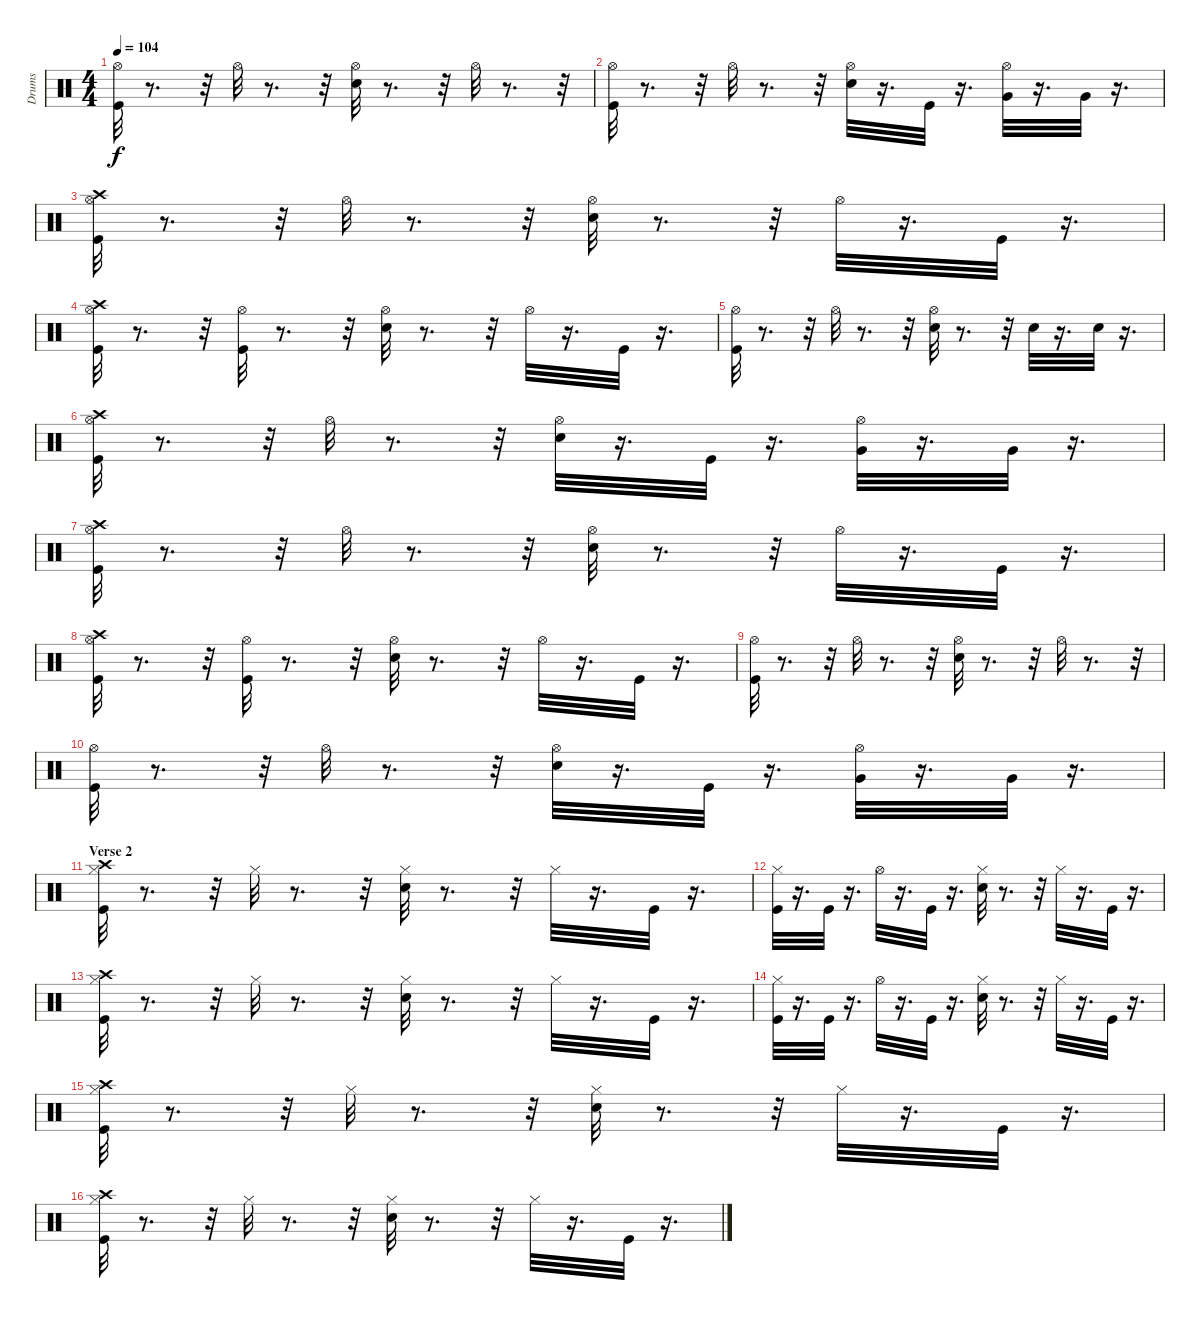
\track ("Drums" "Drums") {instrument percussion}
\staff {score}
\articulation defaults
\ts (4 4)
\tempo 104
\clef neutral
\ks c
("Hi-Hat (open)" "Kick (hit)").32{dy f} r.8{d} r.32 "Hi-Hat (open)".32 r.8{d} r.32 ("Electric Snare (hit)" "Hi-Hat (open)").32 r.8{d} r.32 "Hi-Hat (open)".32 r.8{d} r.32 |
("Hi-Hat (open)" "Kick (hit)").32 r.8{d} r.32 "Hi-Hat (open)".32 r.8{d} r.32 ("Hi-Hat (open)" "Electric Snare (hit)").32 r.16{d} "Kick (hit)".32 r.16{d} ("Very Low Tom (hit)" "Hi-Hat (open)").32 r.16{d} "Very Low Tom (hit)".32 r.16{d} |
("Crash high (hit)" "Hi-Hat (open)" "Kick (hit)").32 r.8{d} r.32 "Hi-Hat (open)".32 r.8{d} r.32 ("Hi-Hat (open)" "Electric Snare (hit)").32 r.8{d} r.32 "Hi-Hat (open)".32 r.16{d} "Kick (hit)".32 r.16{d} |
("Crash high (hit)" "Hi-Hat (open)" "Kick (hit)").32 r.8{d} r.32 ("Kick (hit)" "Hi-Hat (open)").32 r.8{d} r.32 ("Hi-Hat (open)" "Electric Snare (hit)").32 r.8{d} r.32 "Hi-Hat (open)".32 r.16{d} "Kick (hit)".32 r.16{d} |
("Hi-Hat (open)" "Kick (hit)").32 r.8{d} r.32 "Hi-Hat (open)".32 r.8{d} r.32 ("Electric Snare (hit)" "Hi-Hat (open)").32 r.8{d} r.32 "Electric Snare (hit)".32 r.16{d} "Electric Snare (hit)".32 r.16{d} |
("Crash high (hit)" "Hi-Hat (open)" "Kick (hit)").32 r.8{d} r.32 "Hi-Hat (open)".32 r.8{d} r.32 ("Hi-Hat (open)" "Electric Snare (hit)").32 r.16{d} "Kick (hit)".32 r.16{d} ("Very Low Tom (hit)" "Hi-Hat (open)").32 r.16{d} "Very Low Tom (hit)".32 r.16{d} |
("Crash high (hit)" "Hi-Hat (open)" "Kick (hit)").32 r.8{d} r.32 "Hi-Hat (open)".32 r.8{d} r.32 ("Hi-Hat (open)" "Electric Snare (hit)").32 r.8{d} r.32 "Hi-Hat (open)".32 r.16{d} "Kick (hit)".32 r.16{d} |
("Crash high (hit)" "Hi-Hat (open)" "Kick (hit)").32 r.8{d} r.32 ("Kick (hit)" "Hi-Hat (open)").32 r.8{d} r.32 ("Hi-Hat (open)" "Electric Snare (hit)").32 r.8{d} r.32 "Hi-Hat (open)".32 r.16{d} "Kick (hit)".32 r.16{d} |
("Hi-Hat (open)" "Kick (hit)").32 r.8{d} r.32 "Hi-Hat (open)".32 r.8{d} r.32 ("Electric Snare (hit)" "Hi-Hat (open)").32 r.8{d} r.32 "Hi-Hat (open)".32 r.8{d} r.32 |
("Hi-Hat (open)" "Kick (hit)").32 r.8{d} r.32 "Hi-Hat (open)".32 r.8{d} r.32 ("Hi-Hat (open)" "Electric Snare (hit)").32 r.16{d} "Kick (hit)".32 r.16{d} ("Very Low Tom (hit)" "Hi-Hat (open)").32 r.16{d} "Very Low Tom (hit)".32 r.16{d} |
\section ("" "Verse 2")
("Hi-Hat (closed)" "Crash high (hit)" "Kick (hit)").32 r.8{d} r.32 "Hi-Hat (closed)".32 r.8{d} r.32 ("Electric Snare (hit)" "Hi-Hat (closed)").32 r.8{d} r.32 "Hi-Hat (closed)".32 r.16{d} "Kick (hit)".32 r.16{d} |
("Hi-Hat (closed)" "Kick (hit)").32 r.16{d} "Kick (hit)".32 r.16{d} "Hi-Hat (open)".32 r.16{d} "Kick (hit)".32 r.16{d} ("Hi-Hat (closed)" "Electric Snare (hit)").32 r.8{d} r.32 "Hi-Hat (closed)".32 r.16{d} "Kick (hit)".32 r.16{d} |
("Hi-Hat (closed)" "Crash high (hit)" "Kick (hit)").32 r.8{d} r.32 "Hi-Hat (closed)".32 r.8{d} r.32 ("Electric Snare (hit)" "Hi-Hat (closed)").32 r.8{d} r.32 "Hi-Hat (closed)".32 r.16{d} "Kick (hit)".32 r.16{d} |
("Hi-Hat (closed)" "Kick (hit)").32 r.16{d} "Kick (hit)".32 r.16{d} "Hi-Hat (open)".32 r.16{d} "Kick (hit)".32 r.16{d} ("Hi-Hat (closed)" "Electric Snare (hit)").32 r.8{d} r.32 "Hi-Hat (closed)".32 r.16{d} "Kick (hit)".32 r.16{d} |
("Hi-Hat (closed)" "Crash high (hit)" "Kick (hit)").32 r.8{d} r.32 "Hi-Hat (closed)".32 r.8{d} r.32 ("Electric Snare (hit)" "Hi-Hat (closed)").32 r.8{d} r.32 "Hi-Hat (closed)".32 r.16{d} "Kick (hit)".32 r.16{d} |
("Hi-Hat (closed)" "Crash high (hit)" "Kick (hit)").32 r.8{d} r.32 "Hi-Hat (closed)".32 r.8{d} r.32 ("Electric Snare (hit)" "Hi-Hat (closed)").32 r.8{d} r.32 "Hi-Hat (closed)".32 r.16{d} "Kick (hit)".32 r.16{d}
